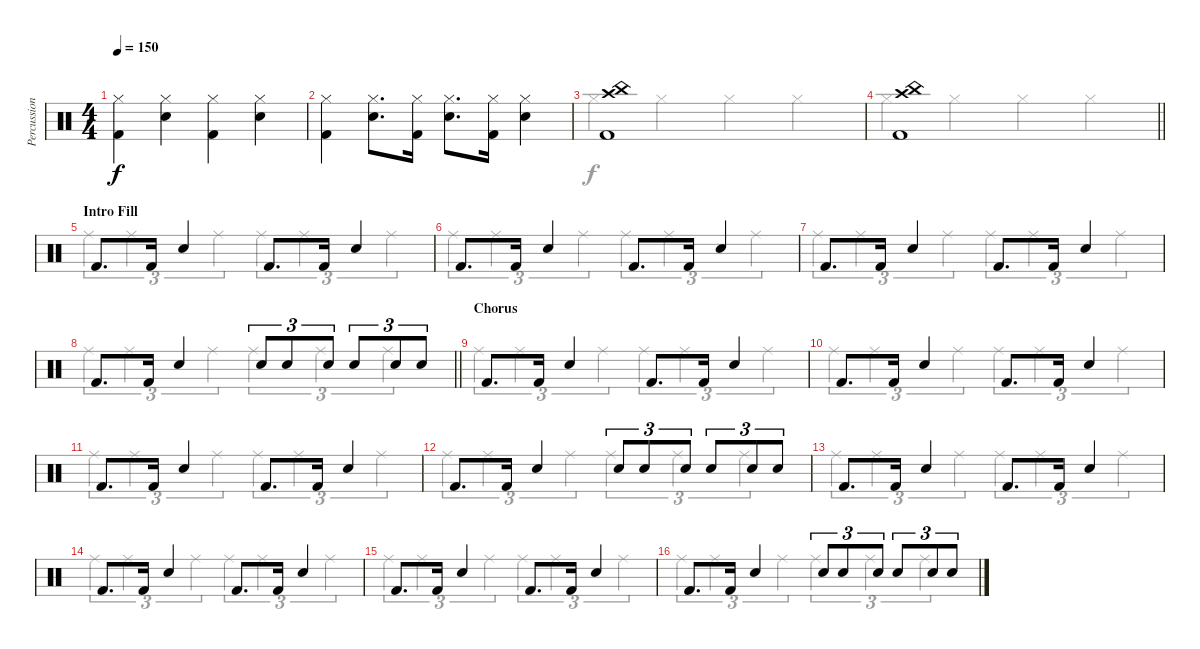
\track ("Percussion" "Percussion") {instrument percussion}
\staff {score}
\articulation defaults
\voice
\ts (4 4)
\tempo 150
\clef neutral
\ks c
("Kick (hit) 2" "Hi-Hat (closed)").4{dy f} ("Snare (hit) 2" "Hi-Hat (closed)").4 ("Kick (hit) 2" "Hi-Hat (closed)").4 ("Snare (hit) 2" "Hi-Hat (closed)").4 |
("Kick (hit) 2" "Hi-Hat (closed)").4 ("Snare (hit) 2" "Hi-Hat (closed)").8{d} ("Kick (hit) 2" "Hi-Hat (closed)").16 ("Snare (hit) 2" "Hi-Hat (closed)").8{d} ("Kick (hit) 2" "Hi-Hat (closed)").16 ("Snare (hit) 2" "Hi-Hat (closed)").4 |
("China (hit)" "Kick (hit) 2" "Crash high (hit)").1 |
\barLineRight lightlight
("China (hit)" "Kick (hit) 2" "Crash high (hit)").1 |
\section ("" "Intro Fill")
"Kick (hit) 2".8{d} "Kick (hit) 2".16 "Snare (hit) 2".4 "Kick (hit) 2".8{d} "Kick (hit) 2".16 "Snare (hit) 2".4 |
"Kick (hit) 2".8{d} "Kick (hit) 2".16 "Snare (hit) 2".4 "Kick (hit) 2".8{d} "Kick (hit) 2".16 "Snare (hit) 2".4 |
"Kick (hit) 2".8{d} "Kick (hit) 2".16 "Snare (hit) 2".4 "Kick (hit) 2".8{d} "Kick (hit) 2".16 "Snare (hit) 2".4 |
\barLineRight lightlight "Kick (hit) 2".8{d} "Kick (hit) 2".16 "Snare (hit) 2".4 "Snare (hit) 2".8{tu (3 2)} "Snare (hit) 2".8{tu (3 2)} "Snare (hit) 2".8{tu (3 2)} "Snare (hit) 2".8{tu (3 2)} "Snare (hit) 2".8{tu (3 2)} "Snare (hit) 2".8{tu (3 2)}
|
\section ("" "Chorus")
"Kick (hit) 2".8{d} "Kick (hit) 2".16 "Snare (hit) 2".4 "Kick (hit) 2".8{d} "Kick (hit) 2".16 "Snare (hit) 2".4 |
"Kick (hit) 2".8{d} "Kick (hit) 2".16 "Snare (hit) 2".4 "Kick (hit) 2".8{d} "Kick (hit) 2".16 "Snare (hit) 2".4 |
"Kick (hit) 2".8{d} "Kick (hit) 2".16 "Snare (hit) 2".4 "Kick (hit) 2".8{d} "Kick (hit) 2".16 "Snare (hit) 2".4 |
"Kick (hit) 2".8{d} "Kick (hit) 2".16 "Snare (hit) 2".4 "Snare (hit) 2".8{tu (3 2)} "Snare (hit) 2".8{tu (3 2)} "Snare (hit) 2".8{tu (3 2)} "Snare (hit) 2".8{tu (3 2)} "Snare (hit) 2".8{tu (3 2)} "Snare (hit) 2".8{tu (3 2)} |
"Kick (hit) 2".8{d} "Kick (hit) 2".16 "Snare (hit) 2".4 "Kick (hit) 2".8{d} "Kick (hit) 2".16 "Snare (hit) 2".4 |
"Kick (hit) 2".8{d} "Kick (hit) 2".16 "Snare (hit) 2".4 "Kick (hit) 2".8{d} "Kick (hit) 2".16 "Snare (hit) 2".4 |
"Kick (hit) 2".8{d} "Kick (hit) 2".16 "Snare (hit) 2".4 "Kick (hit) 2".8{d} "Kick (hit) 2".16 "Snare (hit) 2".4 |
"Kick (hit) 2".8{d} "Kick (hit) 2".16 "Snare (hit) 2".4 "Snare (hit) 2".8{tu (3 2)} "Snare (hit) 2".8{tu (3 2)} "Snare (hit) 2".8{tu (3 2)} "Snare (hit) 2".8{tu (3 2)} "Snare (hit) 2".8{tu (3 2)} "Snare (hit) 2".8{tu (3 2)}
\voice
\clef neutral
\ottava regular
\simile none
\ks c
|
|
"Hi-Hat (closed)".4 "Hi-Hat (closed)".4 "Hi-Hat (closed)".4 "Hi-Hat (closed)".4 |
\barLineRight lightlight "Hi-Hat (closed)".4 "Hi-Hat (closed)".4 "Hi-Hat (closed)".4 "Hi-Hat (closed)".4
|
"Ride (middle)".4{tu (3 2)} "Ride (middle)".4{tu (3 2)} "Ride (middle)".4{tu (3 2)} "Ride (middle)".4{tu (3 2)} "Ride (middle)".4{tu (3 2)} "Ride (middle)".4{tu (3 2)} |
"Ride (middle)".4{tu (3 2)} "Ride (middle)".4{tu (3 2)} "Ride (middle)".4{tu (3 2)} "Ride (middle)".4{tu (3 2)} "Ride (middle)".4{tu (3 2)} "Ride (middle)".4{tu (3 2)} |
"Ride (middle)".4{tu (3 2)} "Ride (middle)".4{tu (3 2)} "Ride (middle)".4{tu (3 2)} "Ride (middle)".4{tu (3 2)} "Ride (middle)".4{tu (3 2)} "Ride (middle)".4{tu (3 2)} |
\barLineRight lightlight "Ride (middle)".4{tu (3 2)} "Ride (middle)".4{tu (3 2)} "Ride (middle)".4{tu (3 2)} "Ride (middle)".4{tu (3 2)} "Ride (middle)".4{tu (3 2)} "Ride (middle)".4{tu (3 2)}
|
"Ride (middle)".4{tu (3 2)} "Ride (middle)".4{tu (3 2)} "Ride (middle)".4{tu (3 2)} "Ride (middle)".4{tu (3 2)} "Ride (middle)".4{tu (3 2)} "Ride (middle)".4{tu (3 2)} |
"Ride (middle)".4{tu (3 2)} "Ride (middle)".4{tu (3 2)} "Ride (middle)".4{tu (3 2)} "Ride (middle)".4{tu (3 2)} "Ride (middle)".4{tu (3 2)} "Ride (middle)".4{tu (3 2)} |
"Ride (middle)".4{tu (3 2)} "Ride (middle)".4{tu (3 2)} "Ride (middle)".4{tu (3 2)} "Ride (middle)".4{tu (3 2)} "Ride (middle)".4{tu (3 2)} "Ride (middle)".4{tu (3 2)} |
"Ride (middle)".4{tu (3 2)} "Ride (middle)".4{tu (3 2)} "Ride (middle)".4{tu (3 2)} "Ride (middle)".4{tu (3 2)} "Ride (middle)".4{tu (3 2)} "Ride (middle)".4{tu (3 2)} |
"Ride (middle)".4{tu (3 2)} "Ride (middle)".4{tu (3 2)} "Ride (middle)".4{tu (3 2)} "Ride (middle)".4{tu (3 2)} "Ride (middle)".4{tu (3 2)} "Ride (middle)".4{tu (3 2)} |
"Ride (middle)".4{tu (3 2)} "Ride (middle)".4{tu (3 2)} "Ride (middle)".4{tu (3 2)} "Ride (middle)".4{tu (3 2)} "Ride (middle)".4{tu (3 2)} "Ride (middle)".4{tu (3 2)} |
"Ride (middle)".4{tu (3 2)} "Ride (middle)".4{tu (3 2)} "Ride (middle)".4{tu (3 2)} "Ride (middle)".4{tu (3 2)} "Ride (middle)".4{tu (3 2)} "Ride (middle)".4{tu (3 2)} |
"Ride (middle)".4{tu (3 2)} "Ride (middle)".4{tu (3 2)} "Ride (middle)".4{tu (3 2)} "Ride (middle)".4{tu (3 2)} "Ride (middle)".4{tu (3 2)} "Ride (middle)".4{tu (3 2)}
